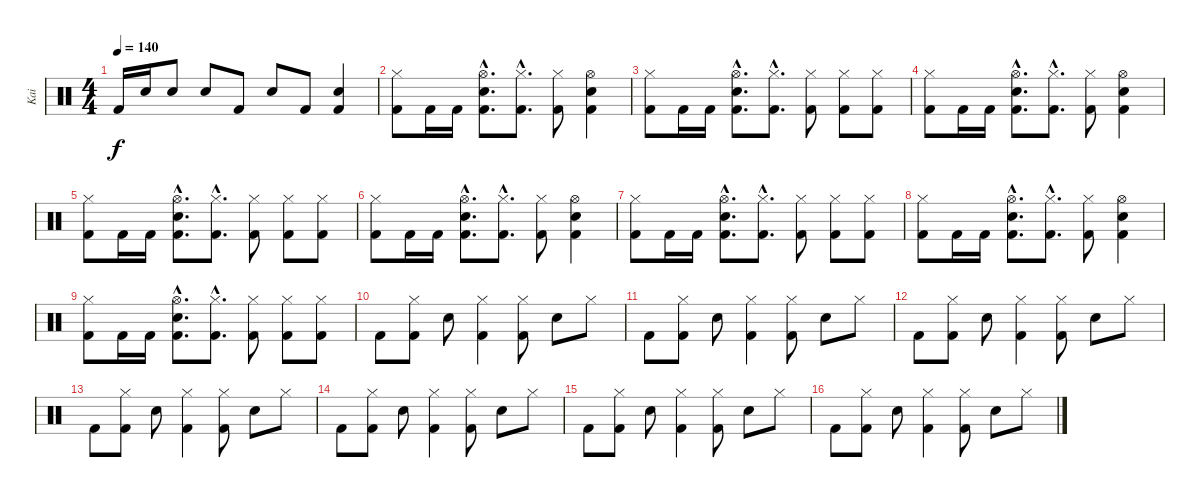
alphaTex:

\track ("Kai" "Kai") {instrument percussion}
\staff {score}
\articulation defaults
\ts (4 4)
\tempo 140
\clef neutral
\ks c "Kick (hit) 2".16{dy f} "Snare (hit) 2".16 "Snare (hit) 2".8 "Snare (hit) 2".8 "Kick (hit) 2".8 "Snare (hit) 2".8 "Kick (hit) 2".8
("Kick (hit) 2" "Snare (hit) 2").4 |
("Kick (hit) 2" "Hi-Hat (closed)").8 "Kick (hit) 2".16 "Kick (hit) 2".16 ("Kick (hit) 2"{hac} "Electric Snare (hit)"{hac} "Hi-Hat (open)"{hac}).8{d} ("Kick (hit) 2"{hac} "Hi-Hat (closed)"{hac}).8{d} ("Kick (hit) 2" "Hi-Hat (closed)").8 ("Kick (hit) 2" "Electric Snare (hit)" "Hi-Hat (open)").4 |
("Kick (hit) 2" "Hi-Hat (closed)").8 "Kick (hit) 2".16 "Kick (hit) 2".16 ("Kick (hit) 2"{hac} "Electric Snare (hit)"{hac} "Hi-Hat (open)"{hac}).8{d} ("Kick (hit) 2"{hac} "Hi-Hat (closed)"{hac}).8{d} ("Kick (hit) 2" "Hi-Hat (closed)").8 ("Kick (hit) 2" "Hi-Hat (closed)").8 ("Kick (hit) 2" "Hi-Hat (closed)").8 |
("Kick (hit) 2" "Hi-Hat (closed)").8 "Kick (hit) 2".16 "Kick (hit) 2".16 ("Kick (hit) 2"{hac} "Electric Snare (hit)"{hac} "Hi-Hat (open)"{hac}).8{d} ("Kick (hit) 2"{hac} "Hi-Hat (closed)"{hac}).8{d} ("Kick (hit) 2" "Hi-Hat (closed)").8 ("Kick (hit) 2" "Electric Snare (hit)" "Hi-Hat (open)").4 |
("Kick (hit) 2" "Hi-Hat (closed)").8 "Kick (hit) 2".16 "Kick (hit) 2".16 ("Kick (hit) 2"{hac} "Electric Snare (hit)"{hac} "Hi-Hat (open)"{hac}).8{d} ("Kick (hit) 2"{hac} "Hi-Hat (closed)"{hac}).8{d} ("Kick (hit) 2" "Hi-Hat (closed)").8 ("Kick (hit) 2" "Hi-Hat (closed)").8 ("Kick (hit) 2" "Hi-Hat (closed)").8 |
("Kick (hit) 2" "Hi-Hat (closed)").8 "Kick (hit) 2".16 "Kick (hit) 2".16 ("Kick (hit) 2"{hac} "Electric Snare (hit)"{hac} "Hi-Hat (open)"{hac}).8{d} ("Kick (hit) 2"{hac} "Hi-Hat (closed)"{hac}).8{d} ("Kick (hit) 2" "Hi-Hat (closed)").8 ("Kick (hit) 2" "Electric Snare (hit)" "Hi-Hat (open)").4 |
("Kick (hit) 2" "Hi-Hat (closed)").8 "Kick (hit) 2".16 "Kick (hit) 2".16 ("Kick (hit) 2"{hac} "Electric Snare (hit)"{hac} "Hi-Hat (open)"{hac}).8{d} ("Kick (hit) 2"{hac} "Hi-Hat (closed)"{hac}).8{d} ("Kick (hit) 2" "Hi-Hat (closed)").8 ("Kick (hit) 2" "Hi-Hat (closed)").8 ("Kick (hit) 2" "Hi-Hat (closed)").8 |
("Kick (hit) 2" "Hi-Hat (closed)").8 "Kick (hit) 2".16 "Kick (hit) 2".16 ("Kick (hit) 2"{hac} "Electric Snare (hit)"{hac} "Hi-Hat (open)"{hac}).8{d} ("Kick (hit) 2"{hac} "Hi-Hat (closed)"{hac}).8{d} ("Kick (hit) 2" "Hi-Hat (closed)").8 ("Kick (hit) 2" "Electric Snare (hit)" "Hi-Hat (open)").4 |
("Kick (hit) 2" "Hi-Hat (closed)").8 "Kick (hit) 2".16 "Kick (hit) 2".16 ("Kick (hit) 2"{hac} "Electric Snare (hit)"{hac} "Hi-Hat (open)"{hac}).8{d} ("Kick (hit) 2"{hac} "Hi-Hat (closed)"{hac}).8{d} ("Kick (hit) 2" "Hi-Hat (closed)").8 ("Kick (hit) 2" "Hi-Hat (closed)").8 ("Kick (hit) 2" "Hi-Hat (closed)").8 |
"Kick (hit) 2".8 ("Kick (hit) 2" "Hi-Hat (closed)").8 "Electric Snare (hit)".8 ("Kick (hit) 2" "Hi-Hat (closed)").4 ("Kick (hit) 2" "Hi-Hat (closed)").8 "Electric Snare (hit)".8 "Hi-Hat (closed)".8 |
"Kick (hit) 2".8 ("Kick (hit) 2" "Hi-Hat (closed)").8 "Electric Snare (hit)".8 ("Kick (hit) 2" "Hi-Hat (closed)").4 ("Kick (hit) 2" "Hi-Hat (closed)").8 "Electric Snare (hit)".8 "Hi-Hat (closed)".8 |
"Kick (hit) 2".8 ("Kick (hit) 2" "Hi-Hat (closed)").8 "Electric Snare (hit)".8 ("Kick (hit) 2" "Hi-Hat (closed)").4 ("Kick (hit) 2" "Hi-Hat (closed)").8 "Electric Snare (hit)".8 "Hi-Hat (closed)".8 |
"Kick (hit) 2".8 ("Kick (hit) 2" "Hi-Hat (closed)").8 "Electric Snare (hit)".8 ("Kick (hit) 2" "Hi-Hat (closed)").4 ("Kick (hit) 2" "Hi-Hat (closed)").8 "Electric Snare (hit)".8 "Hi-Hat (closed)".8 |
"Kick (hit) 2".8 ("Kick (hit) 2" "Hi-Hat (closed)").8 "Electric Snare (hit)".8 ("Kick (hit) 2" "Hi-Hat (closed)").4 ("Kick (hit) 2" "Hi-Hat (closed)").8 "Electric Snare (hit)".8 "Hi-Hat (closed)".8 |
"Kick (hit) 2".8 ("Kick (hit) 2" "Hi-Hat (closed)").8 "Electric Snare (hit)".8 ("Kick (hit) 2" "Hi-Hat (closed)").4 ("Kick (hit) 2" "Hi-Hat (closed)").8 "Electric Snare (hit)".8 "Hi-Hat (closed)".8 |
"Kick (hit) 2".8 ("Kick (hit) 2" "Hi-Hat (closed)").8 "Electric Snare (hit)".8 ("Kick (hit) 2" "Hi-Hat (closed)").4 ("Kick (hit) 2" "Hi-Hat (closed)").8 "Electric Snare (hit)".8 "Hi-Hat (closed)".8
